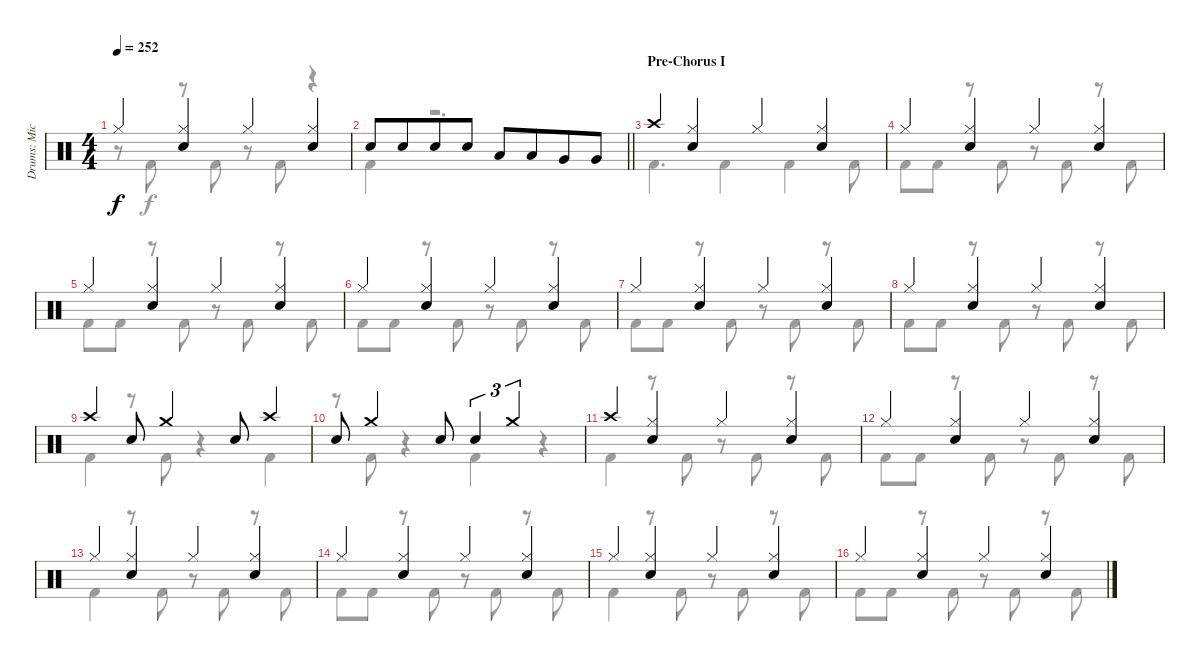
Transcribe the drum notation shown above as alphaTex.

\track ("Drums: Mick" "Drums: Mic") {instrument percussion}
\staff {score}
\articulation defaults
\voice
\ts (4 4)
\tempo 252
\clef neutral
\ks c "Hi-Hat (closed)".4{dy f}
("Hi-Hat (closed)" "Snare (hit) 2").4 "Hi-Hat (closed)".4 ("Hi-Hat (closed)" "Snare (hit) 2").4 |
\barLineRight lightlight "Snare (hit) 2".8 "Snare (hit) 2".8{beam merge} "Snare (hit) 2".8 "Snare (hit) 2".8 "Low Tom (hit)".8 "Low Tom (hit)".8{beam merge} "Very Low Tom (hit)".8 "Very Low Tom (hit)".8
|
\section ("" "Pre-Chorus I")
"Crash high (hit)".4 ("Hi-Hat (closed)" "Snare (hit) 2").4 "Hi-Hat (closed)".4 ("Hi-Hat (closed)" "Snare (hit) 2").4 |
"Hi-Hat (closed)".4 ("Hi-Hat (closed)" "Snare (hit) 2").4 "Hi-Hat (closed)".4 ("Hi-Hat (closed)" "Snare (hit) 2").4 |
"Hi-Hat (closed)".4 ("Hi-Hat (closed)" "Snare (hit) 2").4 "Hi-Hat (closed)".4 ("Hi-Hat (closed)" "Snare (hit) 2").4 |
"Hi-Hat (closed)".4 ("Hi-Hat (closed)" "Snare (hit) 2").4 "Hi-Hat (closed)".4 ("Hi-Hat (closed)" "Snare (hit) 2").4 |
"Hi-Hat (closed)".4 ("Hi-Hat (closed)" "Snare (hit) 2").4 "Hi-Hat (closed)".4 ("Hi-Hat (closed)" "Snare (hit) 2").4 |
"Hi-Hat (closed)".4 ("Hi-Hat (closed)" "Snare (hit) 2").4 "Hi-Hat (closed)".4 ("Hi-Hat (closed)" "Snare (hit) 2").4 |
"Crash high (hit)".4 "Snare (hit) 2".8 "Crash medium (hit)".4 "Snare (hit) 2".8 "Crash high (hit)".4 |
"Snare (hit) 2".8 "Crash medium (hit)".4 "Snare (hit) 2".8 "Snare (hit) 2".4{tu (3 2)} "Crash medium (hit)".2{tu (3 2)} |
"Crash high (hit)".4 ("Hi-Hat (closed)" "Snare (hit) 2").4 "Hi-Hat (closed)".4 ("Hi-Hat (closed)" "Snare (hit) 2").4 |
"Hi-Hat (closed)".4 ("Hi-Hat (closed)" "Snare (hit) 2").4 "Hi-Hat (closed)".4 ("Hi-Hat (closed)" "Snare (hit) 2").4 |
"Hi-Hat (closed)".4 ("Hi-Hat (closed)" "Snare (hit) 2").4 "Hi-Hat (closed)".4 ("Hi-Hat (closed)" "Snare (hit) 2").4 |
"Hi-Hat (closed)".4 ("Hi-Hat (closed)" "Snare (hit) 2").4 "Hi-Hat (closed)".4 ("Hi-Hat (closed)" "Snare (hit) 2").4 |
"Hi-Hat (closed)".4 ("Hi-Hat (closed)" "Snare (hit) 2").4 "Hi-Hat (closed)".4 ("Hi-Hat (closed)" "Snare (hit) 2").4 |
"Hi-Hat (closed)".4 ("Hi-Hat (closed)" "Snare (hit) 2").4 "Hi-Hat (closed)".4 ("Hi-Hat (closed)" "Snare (hit) 2").4
\voice
\clef neutral
\ottava regular
\simile none
\ks c
r.8{dy f} "Kick (hit) 2".8 r.8 "Kick (hit) 2".8 r.8 "Kick (hit) 2".8 r.4 |
\barLineRight lightlight "Kick (hit) 2".4
r.2{d} |
"Kick (hit) 2".4{d} "Kick (hit) 2".4 "Kick (hit) 2".4 "Kick (hit) 2".8 |
"Kick (hit) 2".8 "Kick (hit) 2".8 r.8 "Kick (hit) 2".8 r.8 "Kick (hit) 2".8 r.8 "Kick (hit) 2".8 |
"Kick (hit) 2".8 "Kick (hit) 2".8 r.8 "Kick (hit) 2".8 r.8 "Kick (hit) 2".8 r.8 "Kick (hit) 2".8 |
"Kick (hit) 2".8 "Kick (hit) 2".8 r.8 "Kick (hit) 2".8 r.8 "Kick (hit) 2".8 r.8 "Kick (hit) 2".8 |
"Kick (hit) 2".8 "Kick (hit) 2".8 r.8 "Kick (hit) 2".8 r.8 "Kick (hit) 2".8 r.8 "Kick (hit) 2".8 |
"Kick (hit) 2".8 "Kick (hit) 2".8 r.8 "Kick (hit) 2".8 r.8 "Kick (hit) 2".8 r.8 "Kick (hit) 2".8 |
"Kick (hit) 2".4 r.8 "Kick (hit) 2".8 r.4 "Kick (hit) 2".4 |
r.8 "Kick (hit) 2".8 r.4 "Kick (hit) 2".4 r.4 |
"Kick (hit) 2".4 r.8 "Kick (hit) 2".8 r.8 "Kick (hit) 2".8 r.8 "Kick (hit) 2".8 |
"Kick (hit) 2".8 "Kick (hit) 2".8 r.8 "Kick (hit) 2".8 r.8 "Kick (hit) 2".8 r.8 "Kick (hit) 2".8 |
"Kick (hit) 2".4 r.8 "Kick (hit) 2".8 r.8 "Kick (hit) 2".8 r.8 "Kick (hit) 2".8 |
"Kick (hit) 2".8 "Kick (hit) 2".8 r.8 "Kick (hit) 2".8 r.8 "Kick (hit) 2".8 r.8 "Kick (hit) 2".8 |
"Kick (hit) 2".4 r.8 "Kick (hit) 2".8 r.8 "Kick (hit) 2".8 r.8 "Kick (hit) 2".8 |
"Kick (hit) 2".8 "Kick (hit) 2".8 r.8 "Kick (hit) 2".8 r.8 "Kick (hit) 2".8 r.8 "Kick (hit) 2".8
